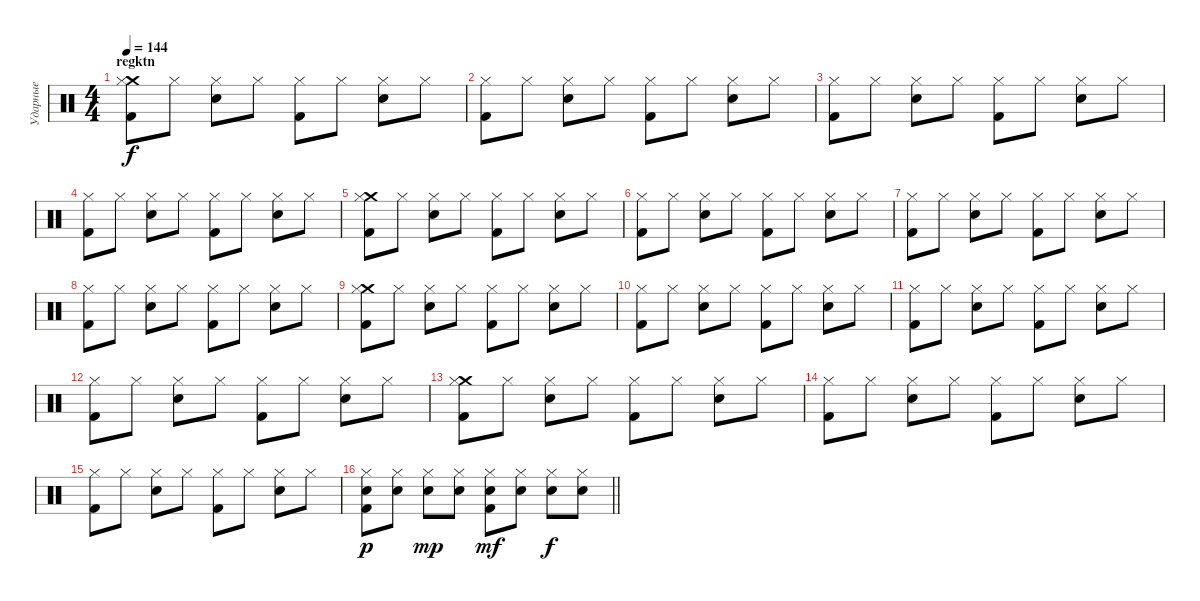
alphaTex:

\track ("Ударные" "Ударные") {instrument percussion}
\staff {score}
\articulation defaults
\ts (4 4)
\section ("" "regktn")
\tempo 144
\clef neutral
\ks c
("Crash medium (hit)" "Hi-Hat (closed)" "Kick (hit) 2").8{dy f} "Hi-Hat (closed)".8 ("Hi-Hat (closed)" "Snare (hit) 2").8 "Hi-Hat (closed)".8 ("Hi-Hat (closed)" "Kick (hit) 2").8 "Hi-Hat (closed)".8 ("Hi-Hat (closed)" "Snare (hit) 2").8 "Hi-Hat (closed)".8 |
("Hi-Hat (closed)" "Kick (hit) 2").8 "Hi-Hat (closed)".8 ("Hi-Hat (closed)" "Snare (hit) 2").8 "Hi-Hat (closed)".8 ("Hi-Hat (closed)" "Kick (hit) 2").8 "Hi-Hat (closed)".8 ("Hi-Hat (closed)" "Snare (hit) 2").8 "Hi-Hat (closed)".8 |
("Hi-Hat (closed)" "Kick (hit) 2").8 "Hi-Hat (closed)".8 ("Hi-Hat (closed)" "Snare (hit) 2").8 "Hi-Hat (closed)".8 ("Hi-Hat (closed)" "Kick (hit) 2").8 "Hi-Hat (closed)".8 ("Hi-Hat (closed)" "Snare (hit) 2").8 "Hi-Hat (closed)".8 |
("Hi-Hat (closed)" "Kick (hit) 2").8 "Hi-Hat (closed)".8 ("Hi-Hat (closed)" "Snare (hit) 2").8 "Hi-Hat (closed)".8 ("Hi-Hat (closed)" "Kick (hit) 2").8 "Hi-Hat (closed)".8 ("Hi-Hat (closed)" "Snare (hit) 2").8 "Hi-Hat (closed)".8 |
("Crash medium (hit)" "Hi-Hat (closed)" "Kick (hit) 2").8 "Hi-Hat (closed)".8 ("Hi-Hat (closed)" "Snare (hit) 2").8 "Hi-Hat (closed)".8 ("Hi-Hat (closed)" "Kick (hit) 2").8 "Hi-Hat (closed)".8 ("Hi-Hat (closed)" "Snare (hit) 2").8 "Hi-Hat (closed)".8 |
("Hi-Hat (closed)" "Kick (hit) 2").8 "Hi-Hat (closed)".8 ("Hi-Hat (closed)" "Snare (hit) 2").8 "Hi-Hat (closed)".8 ("Hi-Hat (closed)" "Kick (hit) 2").8 "Hi-Hat (closed)".8 ("Hi-Hat (closed)" "Snare (hit) 2").8 "Hi-Hat (closed)".8 |
("Hi-Hat (closed)" "Kick (hit) 2").8 "Hi-Hat (closed)".8 ("Hi-Hat (closed)" "Snare (hit) 2").8 "Hi-Hat (closed)".8 ("Hi-Hat (closed)" "Kick (hit) 2").8 "Hi-Hat (closed)".8 ("Hi-Hat (closed)" "Snare (hit) 2").8 "Hi-Hat (closed)".8 |
("Hi-Hat (closed)" "Kick (hit) 2").8 "Hi-Hat (closed)".8 ("Hi-Hat (closed)" "Snare (hit) 2").8 "Hi-Hat (closed)".8 ("Hi-Hat (closed)" "Kick (hit) 2").8 "Hi-Hat (closed)".8 ("Hi-Hat (closed)" "Snare (hit) 2").8 "Hi-Hat (closed)".8 |
("Crash medium (hit)" "Hi-Hat (closed)" "Kick (hit) 2").8 "Hi-Hat (closed)".8 ("Hi-Hat (closed)" "Snare (hit) 2").8 "Hi-Hat (closed)".8 ("Hi-Hat (closed)" "Kick (hit) 2").8 "Hi-Hat (closed)".8 ("Hi-Hat (closed)" "Snare (hit) 2").8 "Hi-Hat (closed)".8 |
("Hi-Hat (closed)" "Kick (hit) 2").8 "Hi-Hat (closed)".8 ("Hi-Hat (closed)" "Snare (hit) 2").8 "Hi-Hat (closed)".8 ("Hi-Hat (closed)" "Kick (hit) 2").8 "Hi-Hat (closed)".8 ("Hi-Hat (closed)" "Snare (hit) 2").8 "Hi-Hat (closed)".8 |
("Hi-Hat (closed)" "Kick (hit) 2").8 "Hi-Hat (closed)".8 ("Hi-Hat (closed)" "Snare (hit) 2").8 "Hi-Hat (closed)".8 ("Hi-Hat (closed)" "Kick (hit) 2").8 "Hi-Hat (closed)".8 ("Hi-Hat (closed)" "Snare (hit) 2").8 "Hi-Hat (closed)".8 |
("Hi-Hat (closed)" "Kick (hit) 2").8 "Hi-Hat (closed)".8 ("Hi-Hat (closed)" "Snare (hit) 2").8 "Hi-Hat (closed)".8 ("Hi-Hat (closed)" "Kick (hit) 2").8 "Hi-Hat (closed)".8 ("Hi-Hat (closed)" "Snare (hit) 2").8 "Hi-Hat (closed)".8 |
("Crash medium (hit)" "Hi-Hat (closed)" "Kick (hit) 2").8 "Hi-Hat (closed)".8 ("Hi-Hat (closed)" "Snare (hit) 2").8 "Hi-Hat (closed)".8 ("Hi-Hat (closed)" "Kick (hit) 2").8 "Hi-Hat (closed)".8 ("Hi-Hat (closed)" "Snare (hit) 2").8 "Hi-Hat (closed)".8 |
("Hi-Hat (closed)" "Kick (hit) 2").8 "Hi-Hat (closed)".8 ("Hi-Hat (closed)" "Snare (hit) 2").8 "Hi-Hat (closed)".8 ("Hi-Hat (closed)" "Kick (hit) 2").8 "Hi-Hat (closed)".8 ("Hi-Hat (closed)" "Snare (hit) 2").8 "Hi-Hat (closed)".8 |
("Hi-Hat (closed)" "Kick (hit) 2").8 "Hi-Hat (closed)".8 ("Hi-Hat (closed)" "Snare (hit) 2").8 "Hi-Hat (closed)".8 ("Hi-Hat (closed)" "Kick (hit) 2").8 "Hi-Hat (closed)".8 ("Hi-Hat (closed)" "Snare (hit) 2").8 "Hi-Hat (closed)".8 |
\barLineRight lightlight
("Kick (hit) 2" "Hi-Hat (closed)" "Snare (hit) 2").8{dy p} ("Hi-Hat (closed)" "Snare (hit) 2").8 ("Hi-Hat (closed)" "Snare (hit) 2").8{dy mp} ("Hi-Hat (closed)" "Snare (hit) 2").8 ("Kick (hit) 2" "Hi-Hat (closed)" "Snare (hit) 2").8{dy mf} ("Hi-Hat (closed)" "Snare (hit) 2").8 ("Hi-Hat (closed)" "Snare (hit) 2").8{dy f} ("Hi-Hat (closed)" "Snare (hit) 2").8
